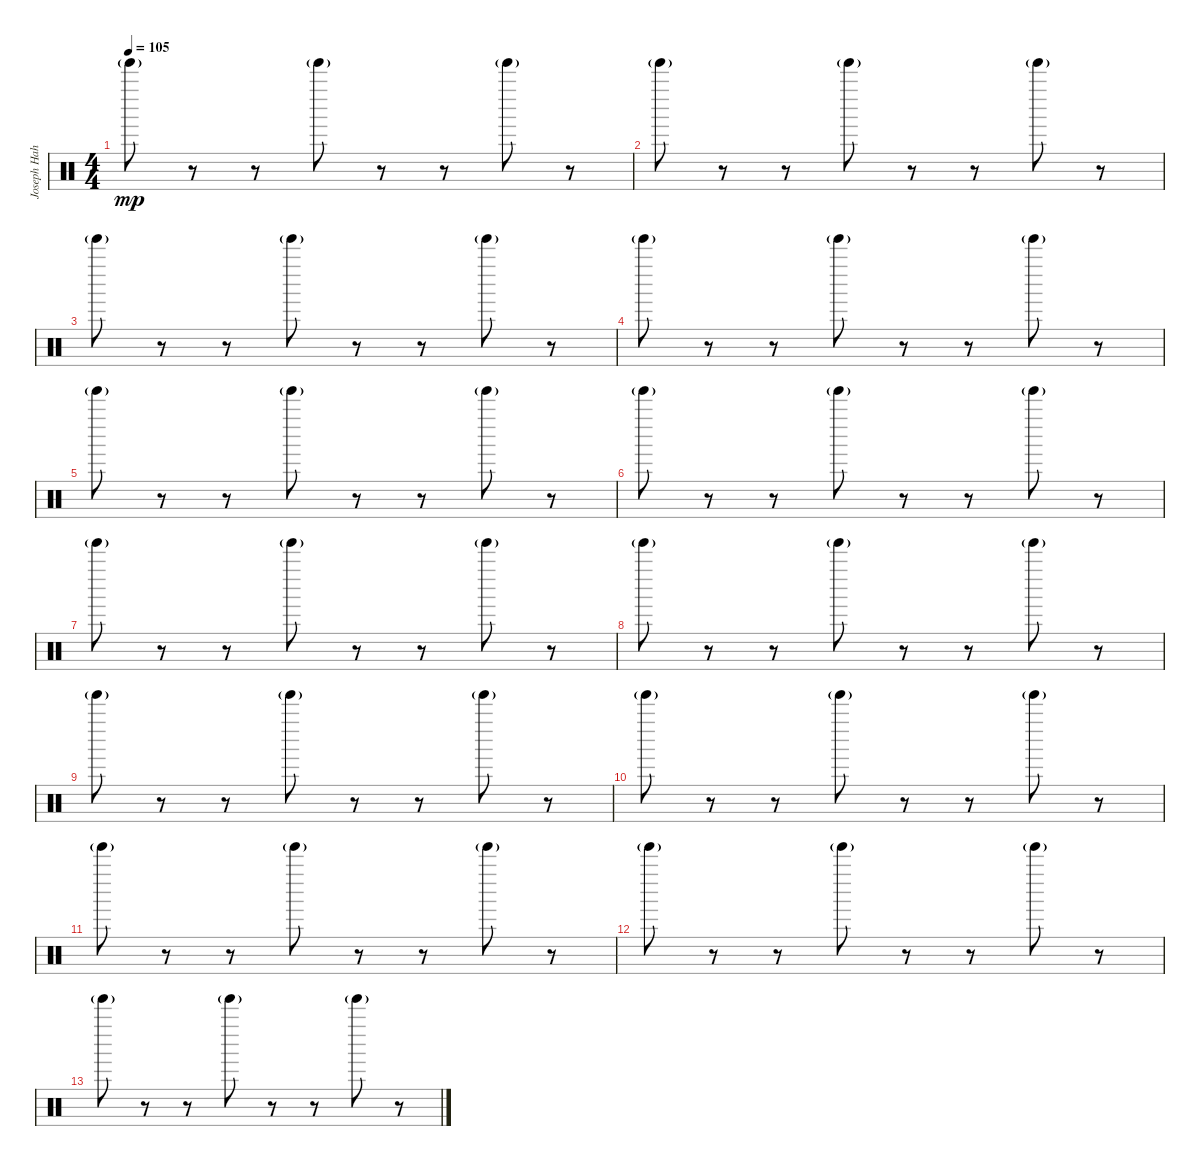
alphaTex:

\track ("Joseph Hahn (Sampler 3)" "Joseph Hah") {instrument percussion}
\staff {score}
\articulation defaults
\ts (4 4)
\tempo 105
\clef neutral
\ks c "Tinkle Bell (hit)"{g}.8{dy mp}
r.8 r.8 "Tinkle Bell (hit)"{g}.8 r.8 r.8 "Tinkle Bell (hit)"{g}.8 r.8 |
"Tinkle Bell (hit)"{g}.8 r.8 r.8 "Tinkle Bell (hit)"{g}.8 r.8 r.8 "Tinkle Bell (hit)"{g}.8 r.8 |
"Tinkle Bell (hit)"{g}.8 r.8 r.8 "Tinkle Bell (hit)"{g}.8 r.8 r.8 "Tinkle Bell (hit)"{g}.8 r.8 |
"Tinkle Bell (hit)"{g}.8 r.8 r.8 "Tinkle Bell (hit)"{g}.8 r.8 r.8 "Tinkle Bell (hit)"{g}.8 r.8 |
"Tinkle Bell (hit)"{g}.8 r.8 r.8 "Tinkle Bell (hit)"{g}.8 r.8 r.8 "Tinkle Bell (hit)"{g}.8 r.8 |
"Tinkle Bell (hit)"{g}.8 r.8 r.8 "Tinkle Bell (hit)"{g}.8 r.8 r.8 "Tinkle Bell (hit)"{g}.8 r.8 |
"Tinkle Bell (hit)"{g}.8 r.8 r.8 "Tinkle Bell (hit)"{g}.8 r.8 r.8 "Tinkle Bell (hit)"{g}.8 r.8 |
"Tinkle Bell (hit)"{g}.8 r.8 r.8 "Tinkle Bell (hit)"{g}.8 r.8 r.8 "Tinkle Bell (hit)"{g}.8 r.8 |
"Tinkle Bell (hit)"{g}.8 r.8 r.8 "Tinkle Bell (hit)"{g}.8 r.8 r.8 "Tinkle Bell (hit)"{g}.8 r.8 |
"Tinkle Bell (hit)"{g}.8 r.8 r.8 "Tinkle Bell (hit)"{g}.8 r.8 r.8 "Tinkle Bell (hit)"{g}.8 r.8 |
"Tinkle Bell (hit)"{g}.8 r.8 r.8 "Tinkle Bell (hit)"{g}.8 r.8 r.8 "Tinkle Bell (hit)"{g}.8 r.8 |
"Tinkle Bell (hit)"{g}.8 r.8 r.8 "Tinkle Bell (hit)"{g}.8 r.8 r.8 "Tinkle Bell (hit)"{g}.8 r.8 |
"Tinkle Bell (hit)"{g}.8 r.8 r.8 "Tinkle Bell (hit)"{g}.8 r.8 r.8 "Tinkle Bell (hit)"{g}.8 r.8
